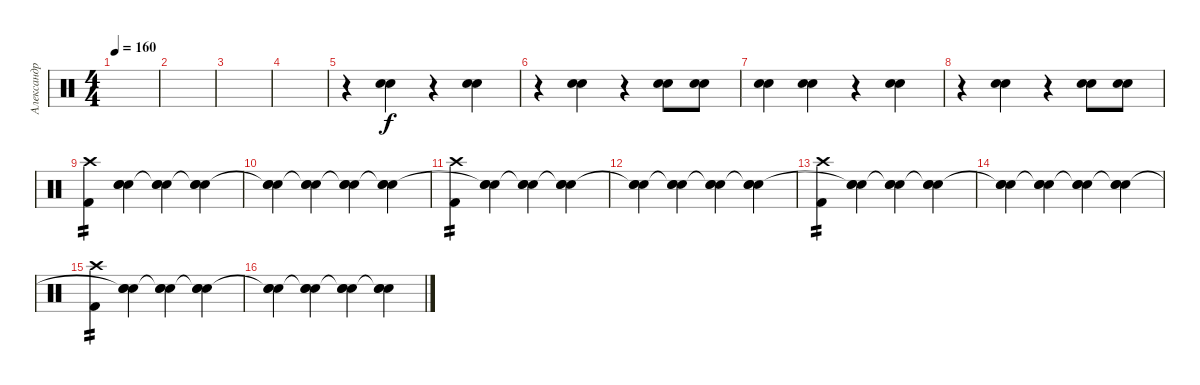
\track ("Александр Карпухин" "Александр ") {instrument percussion}
\staff {score}
\articulation defaults
\ts (4 4)
\tempo 160
\clef neutral
\ks c
|
|
|
|
r.4 ("Electric Snare (hit)" "Electric Snare (hit)").4 r.4 ("Electric Snare (hit)" "Electric Snare (hit)").4 |
r.4 ("Electric Snare (hit)" "Electric Snare (hit)").4 r.4 ("Electric Snare (hit)" "Electric Snare (hit)").8 ("Electric Snare (hit)" "Electric Snare (hit)").8 |
("Electric Snare (hit)" "Electric Snare (hit)").4 ("Electric Snare (hit)" "Electric Snare (hit)").4 r.4 ("Electric Snare (hit)" "Electric Snare (hit)").4 |
r.4 ("Electric Snare (hit)" "Electric Snare (hit)").4 r.4 ("Electric Snare (hit)" "Electric Snare (hit)").8 ("Electric Snare (hit)" "Electric Snare (hit)").8 |
("Crash high (hit)" "Kick (hit) 2").4{tp 2} ("Electric Snare (hit)" "Electric Snare (hit)" "Snare (hit)").4 ("Electric Snare (hit)" "Electric Snare (hit)" "Snare (hit)"{t}).4 ("Electric Snare (hit)" "Electric Snare (hit)" "Snare (hit)"{t}).4 |
("Electric Snare (hit)" "Electric Snare (hit)" "Snare (hit)"{t}).4 ("Electric Snare (hit)" "Electric Snare (hit)" "Snare (hit)"{t}).4 ("Electric Snare (hit)" "Electric Snare (hit)" "Snare (hit)"{t}).4 ("Electric Snare (hit)" "Electric Snare (hit)" "Snare (hit)"{t}).4 |
("Crash high (hit)" "Kick (hit) 2").4{tp 2} ("Electric Snare (hit)" "Electric Snare (hit)" "Snare (hit)"{t}).4 ("Electric Snare (hit)" "Electric Snare (hit)" "Snare (hit)"{t}).4 ("Electric Snare (hit)" "Electric Snare (hit)" "Snare (hit)"{t}).4 |
("Electric Snare (hit)" "Electric Snare (hit)" "Snare (hit)"{t}).4 ("Electric Snare (hit)" "Electric Snare (hit)" "Snare (hit)"{t}).4 ("Electric Snare (hit)" "Electric Snare (hit)" "Snare (hit)"{t}).4 ("Electric Snare (hit)" "Electric Snare (hit)" "Snare (hit)"{t}).4 |
("Crash high (hit)" "Kick (hit) 2").4{tp 2} ("Electric Snare (hit)" "Electric Snare (hit)" "Snare (hit)"{t}).4 ("Electric Snare (hit)" "Electric Snare (hit)" "Snare (hit)"{t}).4 ("Electric Snare (hit)" "Electric Snare (hit)" "Snare (hit)"{t}).4 |
("Electric Snare (hit)" "Electric Snare (hit)" "Snare (hit)"{t}).4 ("Electric Snare (hit)" "Electric Snare (hit)" "Snare (hit)"{t}).4 ("Electric Snare (hit)" "Electric Snare (hit)" "Snare (hit)"{t}).4 ("Electric Snare (hit)" "Electric Snare (hit)" "Snare (hit)"{t}).4 |
("Crash high (hit)" "Kick (hit) 2").4{tp 2} ("Electric Snare (hit)" "Electric Snare (hit)" "Snare (hit)"{t}).4 ("Electric Snare (hit)" "Electric Snare (hit)" "Snare (hit)"{t}).4 ("Electric Snare (hit)" "Electric Snare (hit)" "Snare (hit)"{t}).4 |
("Electric Snare (hit)" "Electric Snare (hit)" "Snare (hit)"{t}).4 ("Electric Snare (hit)" "Electric Snare (hit)" "Snare (hit)"{t}).4 ("Electric Snare (hit)" "Electric Snare (hit)" "Snare (hit)"{t}).4 ("Electric Snare (hit)" "Electric Snare (hit)" "Snare (hit)"{t}).4
